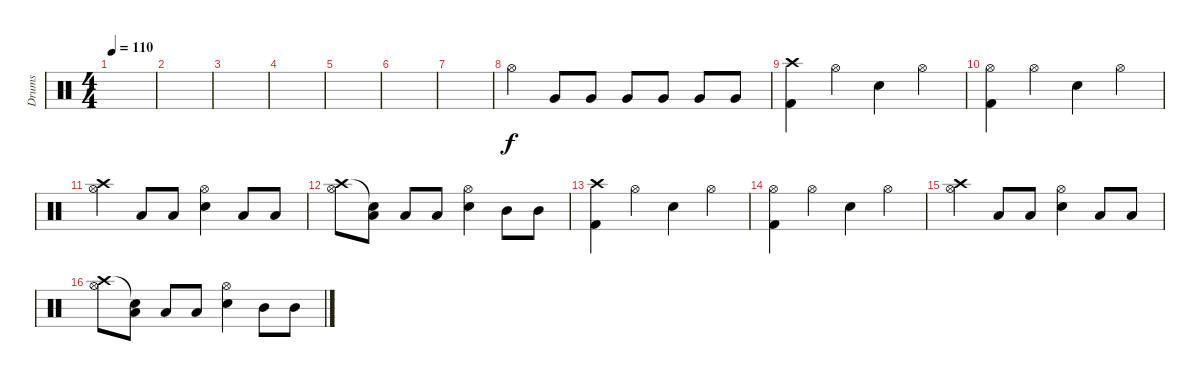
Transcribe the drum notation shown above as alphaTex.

\track ("Drums" "Drums") {instrument percussion}
\staff {score}
\articulation defaults
\ts (4 4)
\tempo 110
\clef neutral
\ks c
|
|
|
|
|
|
|
"Hi-Hat (open)".4 "Very Low Tom (hit)".8 "Very Low Tom (hit)".8 "Very Low Tom (hit)".8 "Very Low Tom (hit)".8 "Very Low Tom (hit)".8 "Very Low Tom (hit)".8 |
("Crash high (hit)" "Kick (hit) 2").4 "Hi-Hat (open)".4 "Snare (hit) 2".4 "Hi-Hat (open)".4 |
("Hi-Hat (open)" "Kick (hit) 2").4 "Hi-Hat (open)".4 "Snare (hit) 2".4 "Hi-Hat (open)".4 |
("Crash high (hit)" "Hi-Hat (open)").4 "Low Tom (hit)".8 "Low Tom (hit)".8 ("Hi-Hat (open)" "Snare (hit) 2").4 "Low Tom (hit)".8 "Low Tom (hit)".8 |
("Crash high (hit)" "Hi-Hat (open)").8 ("Snare (hit)"{t} "Low Tom (hit)").8 "Low Tom (hit)".8 "Low Tom (hit)".8 ("Hi-Hat (open)" "Snare (hit) 2").4 "Mid Tom (hit)".8 "Mid Tom (hit)".8 |
("Crash high (hit)" "Kick (hit) 2").4 "Hi-Hat (open)".4 "Snare (hit) 2".4 "Hi-Hat (open)".4 |
("Hi-Hat (open)" "Kick (hit) 2").4 "Hi-Hat (open)".4 "Snare (hit) 2".4 "Hi-Hat (open)".4 |
("Crash high (hit)" "Hi-Hat (open)").4 "Low Tom (hit)".8 "Low Tom (hit)".8 ("Hi-Hat (open)" "Snare (hit) 2").4 "Low Tom (hit)".8 "Low Tom (hit)".8 |
("Crash high (hit)" "Hi-Hat (open)").8 ("Snare (hit)"{t} "Low Tom (hit)").8 "Low Tom (hit)".8 "Low Tom (hit)".8 ("Hi-Hat (open)" "Snare (hit) 2").4 "Mid Tom (hit)".8 "Mid Tom (hit)".8
